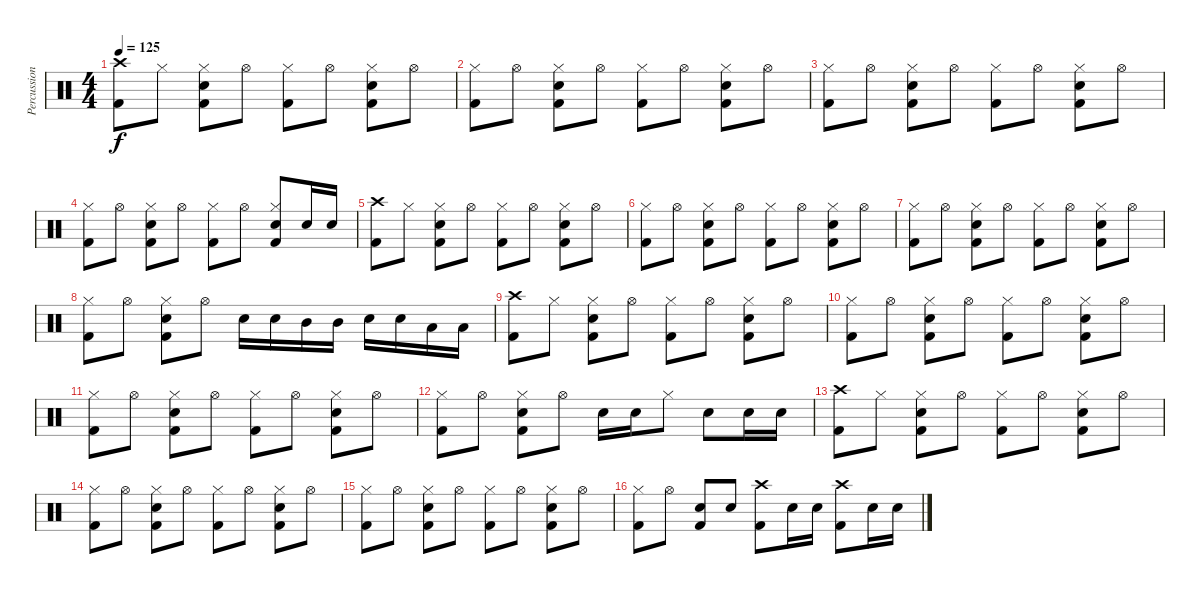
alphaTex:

\track ("Percussion" "Percussion") {instrument percussion}
\staff {score}
\articulation defaults
\ts (4 4)
\tempo 125
\clef neutral
\ks c
("Crash high (hit)" "Kick (hit) 2").8{dy f} "Hi-Hat (closed)".8 ("Hi-Hat (closed)" "Electric Snare (hit)" "Kick (hit) 2").8 "Hi-Hat (open)".8 ("Hi-Hat (closed)" "Kick (hit) 2").8 "Hi-Hat (open)".8 ("Hi-Hat (closed)" "Electric Snare (hit)" "Kick (hit) 2").8 "Hi-Hat (open)".8 |
("Hi-Hat (closed)" "Kick (hit) 2").8 "Hi-Hat (open)".8 ("Hi-Hat (closed)" "Electric Snare (hit)" "Kick (hit) 2").8 "Hi-Hat (open)".8 ("Hi-Hat (closed)" "Kick (hit) 2").8 "Hi-Hat (open)".8 ("Hi-Hat (closed)" "Electric Snare (hit)" "Kick (hit) 2").8 "Hi-Hat (open)".8 |
("Hi-Hat (closed)" "Kick (hit) 2").8 "Hi-Hat (open)".8 ("Hi-Hat (closed)" "Electric Snare (hit)" "Kick (hit) 2").8 "Hi-Hat (open)".8 ("Hi-Hat (closed)" "Kick (hit) 2").8 "Hi-Hat (open)".8 ("Hi-Hat (closed)" "Electric Snare (hit)" "Kick (hit) 2").8 "Hi-Hat (open)".8 |
("Hi-Hat (closed)" "Kick (hit) 2").8 "Hi-Hat (open)".8 ("Hi-Hat (closed)" "Electric Snare (hit)" "Kick (hit) 2").8 "Hi-Hat (open)".8 ("Hi-Hat (closed)" "Kick (hit) 2").8 "Hi-Hat (open)".8 ("Hi-Hat (closed)" "Electric Snare (hit)" "Kick (hit) 2").8 "Electric Snare (hit)".16 "Electric Snare (hit)".16 |
("Crash high (hit)" "Kick (hit) 2").8 "Hi-Hat (closed)".8 ("Hi-Hat (closed)" "Electric Snare (hit)" "Kick (hit) 2").8 "Hi-Hat (open)".8 ("Hi-Hat (closed)" "Kick (hit) 2").8 "Hi-Hat (open)".8 ("Hi-Hat (closed)" "Electric Snare (hit)" "Kick (hit) 2").8 "Hi-Hat (open)".8 |
("Hi-Hat (closed)" "Kick (hit) 2").8 "Hi-Hat (open)".8 ("Hi-Hat (closed)" "Electric Snare (hit)" "Kick (hit) 2").8 "Hi-Hat (open)".8 ("Hi-Hat (closed)" "Kick (hit) 2").8 "Hi-Hat (open)".8 ("Hi-Hat (closed)" "Electric Snare (hit)" "Kick (hit) 2").8 "Hi-Hat (open)".8 |
("Hi-Hat (closed)" "Kick (hit) 2").8 "Hi-Hat (open)".8 ("Hi-Hat (closed)" "Electric Snare (hit)" "Kick (hit) 2").8 "Hi-Hat (open)".8{txt ""} ("Hi-Hat (closed)" "Kick (hit) 2").8 "Hi-Hat (open)".8 ("Hi-Hat (closed)" "Electric Snare (hit)" "Kick (hit) 2").8 "Hi-Hat (open)".8 |
("Hi-Hat (closed)" "Kick (hit) 2").8 "Hi-Hat (open)".8 ("Hi-Hat (closed)" "Electric Snare (hit)" "Kick (hit) 2").8 "Hi-Hat (open)".8 "Electric Snare (hit)".16 "Electric Snare (hit)".16 "Mid Tom (hit)".16 "Mid Tom (hit)".16 "Electric Snare (hit)".16 "Electric Snare (hit)".16 "Low Tom (hit)".16 "Low Tom (hit)".16 |
("Crash high (hit)" "Kick (hit) 2").8 "Hi-Hat (closed)".8 ("Hi-Hat (closed)" "Electric Snare (hit)" "Kick (hit) 2").8 "Hi-Hat (open)".8 ("Hi-Hat (closed)" "Kick (hit) 2").8 "Hi-Hat (open)".8 ("Hi-Hat (closed)" "Electric Snare (hit)" "Kick (hit) 2").8 "Hi-Hat (open)".8 |
("Hi-Hat (closed)" "Kick (hit) 2").8 "Hi-Hat (open)".8 ("Hi-Hat (closed)" "Electric Snare (hit)" "Kick (hit) 2").8 "Hi-Hat (open)".8 ("Hi-Hat (closed)" "Kick (hit) 2").8 "Hi-Hat (open)".8 ("Hi-Hat (closed)" "Electric Snare (hit)" "Kick (hit) 2").8 "Hi-Hat (open)".8 |
("Hi-Hat (closed)" "Kick (hit) 2").8 "Hi-Hat (open)".8 ("Hi-Hat (closed)" "Electric Snare (hit)" "Kick (hit) 2").8 "Hi-Hat (open)".8 ("Hi-Hat (closed)" "Kick (hit) 2").8 "Hi-Hat (open)".8 ("Hi-Hat (closed)" "Electric Snare (hit)" "Kick (hit) 2").8 "Hi-Hat (open)".8 |
("Hi-Hat (closed)" "Kick (hit) 2").8 "Hi-Hat (open)".8 ("Hi-Hat (closed)" "Electric Snare (hit)" "Kick (hit) 2").8 "Hi-Hat (open)".8 "Electric Snare (hit)".16 "Electric Snare (hit)".16 "Hi-Hat (closed)".8 "Electric Snare (hit)".8 "Electric Snare (hit)".16 "Electric Snare (hit)".16 |
("Crash high (hit)" "Kick (hit) 2").8 "Hi-Hat (closed)".8 ("Hi-Hat (closed)" "Electric Snare (hit)" "Kick (hit) 2").8 "Hi-Hat (open)".8 ("Hi-Hat (closed)" "Kick (hit) 2").8 "Hi-Hat (open)".8 ("Hi-Hat (closed)" "Electric Snare (hit)" "Kick (hit) 2").8 "Hi-Hat (open)".8 |
("Hi-Hat (closed)" "Kick (hit) 2").8 "Hi-Hat (open)".8 ("Hi-Hat (closed)" "Electric Snare (hit)" "Kick (hit) 2").8 "Hi-Hat (open)".8 ("Hi-Hat (closed)" "Kick (hit) 2").8 "Hi-Hat (open)".8 ("Hi-Hat (closed)" "Electric Snare (hit)" "Kick (hit) 2").8 "Hi-Hat (open)".8 |
("Hi-Hat (closed)" "Kick (hit) 2").8 "Hi-Hat (open)".8 ("Hi-Hat (closed)" "Electric Snare (hit)" "Kick (hit) 2").8 "Hi-Hat (open)".8 ("Hi-Hat (closed)" "Kick (hit) 2").8 "Hi-Hat (open)".8 ("Hi-Hat (closed)" "Electric Snare (hit)" "Kick (hit) 2").8 "Hi-Hat (open)".8 |
("Hi-Hat (closed)" "Kick (hit) 2").8 "Hi-Hat (open)".8 ("Electric Snare (hit)" "Kick (hit) 2").8 "Electric Snare (hit)".8 ("Crash high (hit)" "Kick (hit) 2").8 "Electric Snare (hit)".16 "Electric Snare (hit)".16 ("Crash high (hit)" "Kick (hit) 2").8 "Electric Snare (hit)".16 "Electric Snare (hit)".16
